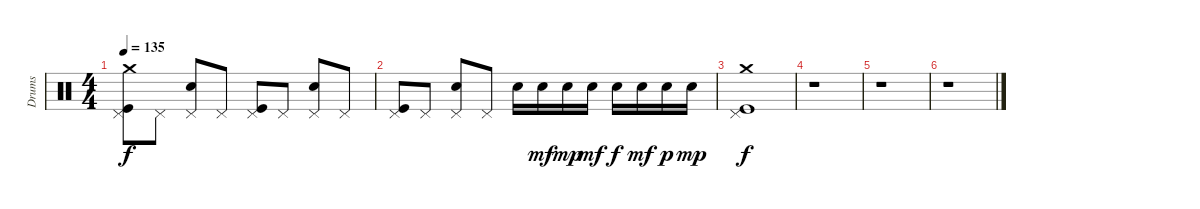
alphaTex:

\track ("Drums" "Drums") {instrument percussion}
\staff {score}
\articulation defaults
\ts (4 4)
\tempo 135
\clef neutral
\ks c
("Pedal Hi-Hat (hit)" "Kick (hit)" "Crash medium (hit)").8{dy f} "Pedal Hi-Hat (hit)".8 ("Pedal Hi-Hat (hit)" "Electric Snare (hit)").8 "Pedal Hi-Hat (hit)".8 ("Pedal Hi-Hat (hit)" "Kick (hit)").8 "Pedal Hi-Hat (hit)".8 ("Pedal Hi-Hat (hit)" "Electric Snare (hit)").8 "Pedal Hi-Hat (hit)".8 |
("Pedal Hi-Hat (hit)" "Kick (hit)").8 "Pedal Hi-Hat (hit)".8 ("Pedal Hi-Hat (hit)" "Electric Snare (hit)").8 "Pedal Hi-Hat (hit)".8 "Electric Snare (hit)".16 "Electric Snare (hit)".16{dy mf} "Electric Snare (hit)".16{dy mp} "Electric Snare (hit)".16{dy mf} "Electric Snare (hit)".16{dy f} "Electric Snare (hit)".16{dy mf} "Electric Snare (hit)".16{dy p} "Electric Snare (hit)".16{dy mp} |
("Pedal Hi-Hat (hit)" "Kick (hit)" "Crash medium (hit)").1{dy f} |
r.1 |
r.1 |
r.1
